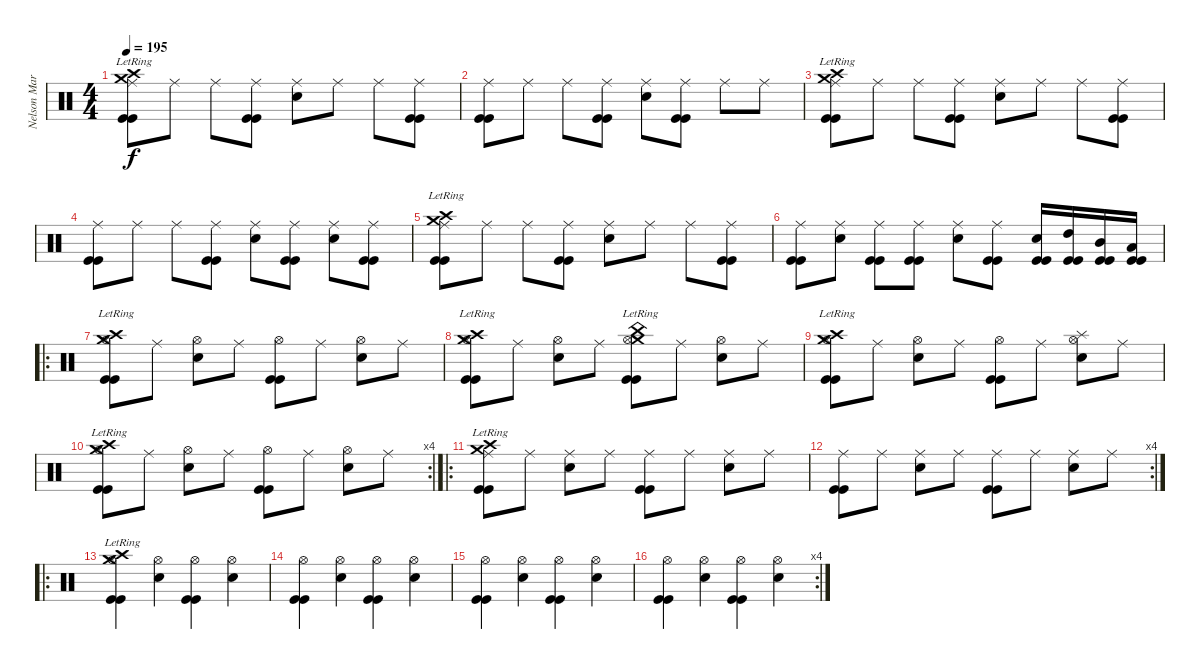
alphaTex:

\track ("Nelson Maria" "Nelson Mar") {instrument percussion}
\staff {score}
\articulation defaults
\ts (4 4)
\tempo 195
\clef neutral
\ks c
("Crash high (hit)"{lr} "Crash medium (hit)"{lr} "Ride (middle)" "Kick (hit)" "Kick (hit)").8{dy f} "Ride (middle)".8 "Ride (middle)".8 ("Ride (middle)" "Kick (hit)" "Kick (hit)").8 ("Snare (hit) 2" "Ride (middle)").8 "Ride (middle)".8 "Ride (middle)".8 ("Ride (middle)" "Kick (hit)" "Kick (hit)").8 |
("Ride (middle)" "Kick (hit)" "Kick (hit)").8 "Ride (middle)".8 "Ride (middle)".8 ("Ride (middle)" "Kick (hit)" "Kick (hit)").8 ("Snare (hit) 2" "Ride (middle)").8 ("Ride (middle)" "Kick (hit)" "Kick (hit)").8 "Ride (middle)".8 "Ride (middle)".8 |
("Crash high (hit)"{lr} "Crash medium (hit)"{lr} "Ride (middle)" "Kick (hit)" "Kick (hit)").8 "Ride (middle)".8 "Ride (middle)".8 ("Ride (middle)" "Kick (hit)" "Kick (hit)").8 ("Snare (hit) 2" "Ride (middle)").8 "Ride (middle)".8 "Ride (middle)".8 ("Ride (middle)" "Kick (hit)" "Kick (hit)").8 |
("Ride (middle)" "Kick (hit)" "Kick (hit)").8 "Ride (middle)".8 "Ride (middle)".8 ("Ride (middle)" "Kick (hit)" "Kick (hit)").8 ("Snare (hit) 2" "Ride (middle)").8 ("Ride (middle)" "Kick (hit)" "Kick (hit)").8 ("Snare (hit) 2" "Ride (middle)").8 ("Ride (middle)" "Kick (hit)" "Kick (hit)").8 |
("Crash high (hit)"{lr} "Crash medium (hit)"{lr} "Ride (middle)" "Kick (hit)" "Kick (hit)").8 "Ride (middle)".8 "Ride (middle)".8 ("Ride (middle)" "Kick (hit)" "Kick (hit)").8 ("Snare (hit) 2" "Ride (middle)").8 "Ride (middle)".8 "Ride (middle)".8 ("Ride (middle)" "Kick (hit)" "Kick (hit)").8 |
("Ride (middle)" "Kick (hit)" "Kick (hit)").8 ("Snare (hit) 2" "Ride (middle)").8 ("Ride (middle)" "Kick (hit)" "Kick (hit)").8 ("Ride (middle)" "Kick (hit)" "Kick (hit)").8 ("Snare (hit) 2" "Ride (middle)").8 ("Ride (middle)" "Kick (hit)" "Kick (hit)").8 ("Snare (hit) 2" "Kick (hit)" "Kick (hit)").16 ("High Tom (hit)" "Kick (hit)" "Kick (hit)").16 ("Mid Tom (hit)" "Kick (hit)" "Kick (hit)").16 ("Low Tom (hit)" "Kick (hit)" "Kick (hit)").16 |
\ro
("Crash high (hit)"{lr} "Crash medium (hit)"{lr} "Hi-Hat (open)" "Kick (hit)" "Kick (hit)").8 "Ride (middle)".8 ("Snare (hit) 2" "Hi-Hat (open)").8 "Ride (middle)".8 ("Hi-Hat (open)" "Kick (hit)" "Kick (hit)").8 "Ride (middle)".8 ("Snare (hit) 2" "Hi-Hat (open)").8 "Ride (middle)".8 |
("Crash high (hit)"{lr} "Crash medium (hit)"{lr} "Hi-Hat (open)" "Kick (hit)" "Kick (hit)").8 "Ride (middle)".8 ("Snare (hit) 2" "Hi-Hat (open)").8 "Ride (middle)".8 ("Crash medium (hit)"{lr} "China (hit)"{lr} "Hi-Hat (open)" "Kick (hit)" "Kick (hit)").8 "Ride (middle)".8 ("Snare (hit) 2" "Hi-Hat (open)").8 "Ride (middle)".8 |
("Crash high (hit)"{lr} "Crash medium (hit)"{lr} "Hi-Hat (open)" "Kick (hit)" "Kick (hit)").8 "Ride (middle)".8 ("Snare (hit) 2" "Hi-Hat (open)").8 "Ride (middle)".8 ("Hi-Hat (open)" "Kick (hit)" "Kick (hit)").8 "Ride (middle)".8 ("Splash (hit)" "Snare (hit) 2" "Hi-Hat (open)").8 "Ride (middle)".8 |
\rc 4
("Crash high (hit)"{lr} "Crash medium (hit)"{lr} "Hi-Hat (open)" "Kick (hit)" "Kick (hit)").8 "Ride (middle)".8 ("Snare (hit) 2" "Hi-Hat (open)").8 "Ride (middle)".8 ("Hi-Hat (open)" "Kick (hit)" "Kick (hit)").8 "Ride (middle)".8 ("Snare (hit) 2" "Hi-Hat (open)").8 "Ride (middle)".8 |
\ro
("Crash high (hit)"{lr} "Crash medium (hit)"{lr} "Ride (middle)" "Kick (hit)" "Kick (hit)").8 "Ride (middle)".8 ("Snare (hit) 2" "Ride (middle)").8 "Ride (middle)".8 ("Ride (middle)" "Kick (hit)" "Kick (hit)").8 "Ride (middle)".8 ("Snare (hit) 2" "Ride (middle)").8 "Ride (middle)".8 |
\rc 4
("Ride (middle)" "Kick (hit)" "Kick (hit)").8 "Ride (middle)".8 ("Snare (hit) 2" "Ride (middle)").8 "Ride (middle)".8 ("Ride (middle)" "Kick (hit)" "Kick (hit)").8 "Ride (middle)".8 ("Snare (hit) 2" "Ride (middle)").8 "Ride (middle)".8 |
\ro
("Crash high (hit)"{lr} "Crash medium (hit)"{lr} "Hi-Hat (open)" "Kick (hit)" "Kick (hit)").4 ("Snare (hit) 2" "Hi-Hat (open)").4 ("Hi-Hat (open)" "Kick (hit)" "Kick (hit)").4 ("Snare (hit) 2" "Hi-Hat (open)").4 |
("Hi-Hat (open)" "Kick (hit)" "Kick (hit)").4 ("Snare (hit) 2" "Hi-Hat (open)").4 ("Hi-Hat (open)" "Kick (hit)" "Kick (hit)").4 ("Snare (hit) 2" "Hi-Hat (open)").4 |
("Hi-Hat (open)" "Kick (hit)" "Kick (hit)").4 ("Snare (hit) 2" "Hi-Hat (open)").4 ("Hi-Hat (open)" "Kick (hit)" "Kick (hit)").4 ("Snare (hit) 2" "Hi-Hat (open)").4 |
\rc 4
("Hi-Hat (open)" "Kick (hit)" "Kick (hit)").4 ("Snare (hit) 2" "Hi-Hat (open)").4 ("Hi-Hat (open)" "Kick (hit)" "Kick (hit)").4 ("Snare (hit) 2" "Hi-Hat (open)").4
